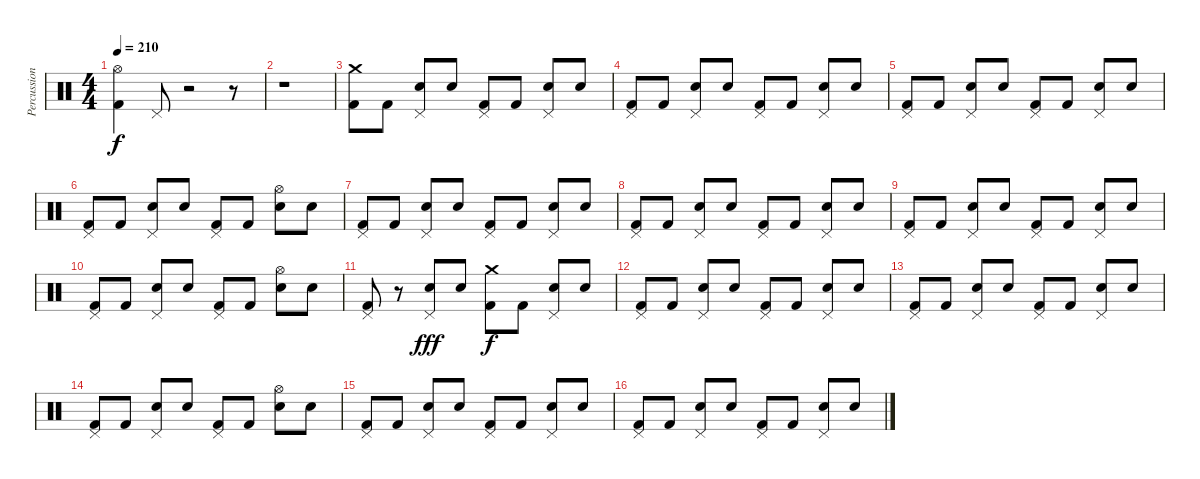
\track ("Percussion" "Percussion") {instrument percussion}
\staff {score}
\articulation defaults
\ts (4 4)
\tempo 210
\clef neutral
\ks c
("Hi-Hat (open)" "Kick (hit) 2").4{dy f} "Pedal Hi-Hat (hit)".8 r.2 r.8 |
r.1 |
("Crash medium (hit)" "Kick (hit) 2").8 "Kick (hit) 2".8 ("Pedal Hi-Hat (hit)" "Electric Snare (hit)").8 "Electric Snare (hit)".8 ("Pedal Hi-Hat (hit)" "Kick (hit) 2").8 "Kick (hit) 2".8 ("Pedal Hi-Hat (hit)" "Electric Snare (hit)").8 "Electric Snare (hit)".8 |
("Pedal Hi-Hat (hit)" "Kick (hit) 2").8 "Kick (hit) 2".8 ("Pedal Hi-Hat (hit)" "Electric Snare (hit)").8 "Electric Snare (hit)".8 ("Pedal Hi-Hat (hit)" "Kick (hit) 2").8 "Kick (hit) 2".8 ("Pedal Hi-Hat (hit)" "Electric Snare (hit)").8 "Electric Snare (hit)".8 |
("Pedal Hi-Hat (hit)" "Kick (hit) 2").8 "Kick (hit) 2".8 ("Pedal Hi-Hat (hit)" "Electric Snare (hit)").8 "Electric Snare (hit)".8 ("Pedal Hi-Hat (hit)" "Kick (hit) 2").8 "Kick (hit) 2".8 ("Pedal Hi-Hat (hit)" "Electric Snare (hit)").8 "Electric Snare (hit)".8 |
("Pedal Hi-Hat (hit)" "Kick (hit) 2").8 "Kick (hit) 2".8 ("Pedal Hi-Hat (hit)" "Electric Snare (hit)").8 "Electric Snare (hit)".8 ("Pedal Hi-Hat (hit)" "Kick (hit) 2").8 "Kick (hit) 2".8 ("Hi-Hat (open)" "Electric Snare (hit)").8 "Electric Snare (hit)".8 |
("Pedal Hi-Hat (hit)" "Kick (hit) 2").8 "Kick (hit) 2".8 ("Pedal Hi-Hat (hit)" "Electric Snare (hit)").8 "Electric Snare (hit)".8 ("Pedal Hi-Hat (hit)" "Kick (hit) 2").8 "Kick (hit) 2".8 ("Pedal Hi-Hat (hit)" "Electric Snare (hit)").8 "Electric Snare (hit)".8 |
("Pedal Hi-Hat (hit)" "Kick (hit) 2").8 "Kick (hit) 2".8 ("Pedal Hi-Hat (hit)" "Electric Snare (hit)").8 "Electric Snare (hit)".8 ("Pedal Hi-Hat (hit)" "Kick (hit) 2").8 "Kick (hit) 2".8 ("Pedal Hi-Hat (hit)" "Electric Snare (hit)").8 "Electric Snare (hit)".8 |
("Pedal Hi-Hat (hit)" "Kick (hit) 2").8 "Kick (hit) 2".8 ("Pedal Hi-Hat (hit)" "Electric Snare (hit)").8 "Electric Snare (hit)".8 ("Pedal Hi-Hat (hit)" "Kick (hit) 2").8 "Kick (hit) 2".8 ("Pedal Hi-Hat (hit)" "Electric Snare (hit)").8 "Electric Snare (hit)".8 |
("Pedal Hi-Hat (hit)" "Kick (hit) 2").8 "Kick (hit) 2".8 ("Pedal Hi-Hat (hit)" "Electric Snare (hit)").8 "Electric Snare (hit)".8 ("Pedal Hi-Hat (hit)" "Kick (hit) 2").8 "Kick (hit) 2".8 ("Hi-Hat (open)" "Electric Snare (hit)").8 "Electric Snare (hit)".8 |
("Pedal Hi-Hat (hit)" "Kick (hit) 2").8 r.8 ("Pedal Hi-Hat (hit)" "Electric Snare (hit)").8{dy fff} "Electric Snare (hit)".8 ("Crash medium (hit)" "Kick (hit) 2").8{dy f} "Kick (hit) 2".8 ("Pedal Hi-Hat (hit)" "Electric Snare (hit)").8 "Electric Snare (hit)".8 |
("Pedal Hi-Hat (hit)" "Kick (hit) 2").8 "Kick (hit) 2".8 ("Pedal Hi-Hat (hit)" "Electric Snare (hit)").8 "Electric Snare (hit)".8 ("Pedal Hi-Hat (hit)" "Kick (hit) 2").8 "Kick (hit) 2".8 ("Pedal Hi-Hat (hit)" "Electric Snare (hit)").8 "Electric Snare (hit)".8 |
("Pedal Hi-Hat (hit)" "Kick (hit) 2").8 "Kick (hit) 2".8 ("Pedal Hi-Hat (hit)" "Electric Snare (hit)").8 "Electric Snare (hit)".8 ("Pedal Hi-Hat (hit)" "Kick (hit) 2").8 "Kick (hit) 2".8 ("Pedal Hi-Hat (hit)" "Electric Snare (hit)").8 "Electric Snare (hit)".8 |
("Pedal Hi-Hat (hit)" "Kick (hit) 2").8 "Kick (hit) 2".8 ("Pedal Hi-Hat (hit)" "Electric Snare (hit)").8 "Electric Snare (hit)".8 ("Pedal Hi-Hat (hit)" "Kick (hit) 2").8 "Kick (hit) 2".8 ("Hi-Hat (open)" "Electric Snare (hit)").8 "Electric Snare (hit)".8 |
("Pedal Hi-Hat (hit)" "Kick (hit) 2").8 "Kick (hit) 2".8 ("Pedal Hi-Hat (hit)" "Electric Snare (hit)").8 "Electric Snare (hit)".8 ("Pedal Hi-Hat (hit)" "Kick (hit) 2").8 "Kick (hit) 2".8 ("Pedal Hi-Hat (hit)" "Electric Snare (hit)").8 "Electric Snare (hit)".8 |
("Pedal Hi-Hat (hit)" "Kick (hit) 2").8 "Kick (hit) 2".8 ("Pedal Hi-Hat (hit)" "Electric Snare (hit)").8 "Electric Snare (hit)".8 ("Pedal Hi-Hat (hit)" "Kick (hit) 2").8 "Kick (hit) 2".8 ("Pedal Hi-Hat (hit)" "Electric Snare (hit)").8 "Electric Snare (hit)".8
